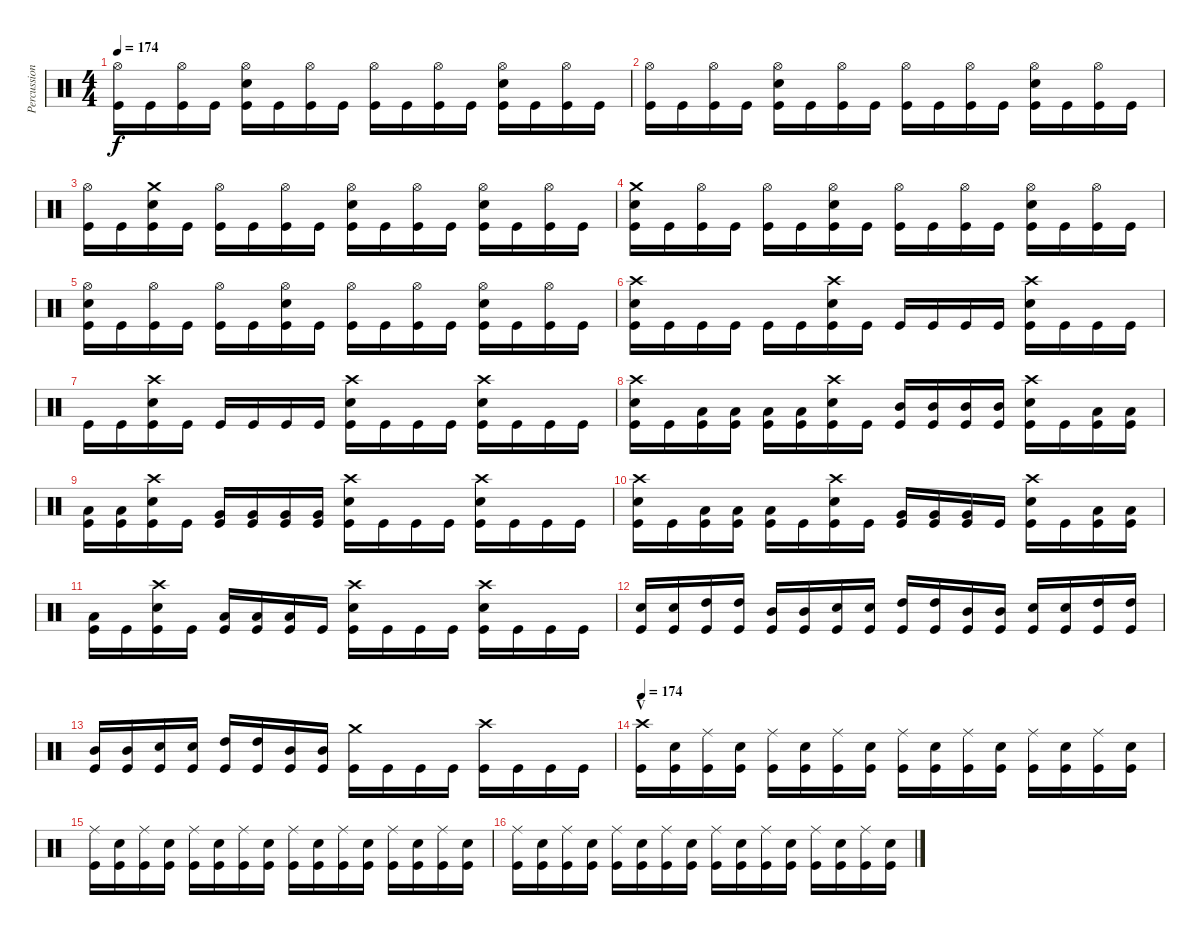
\track ("Percussion" "Percussion") {instrument percussion}
\staff {score}
\articulation defaults
\ts (4 4)
\tempo 174
\clef neutral
\ks c
("Hi-Hat (open)" "Kick (hit)").16{dy f} "Kick (hit)".16 ("Hi-Hat (open)" "Kick (hit)").16 "Kick (hit)".16 ("Hi-Hat (open)" "Electric Snare (hit)" "Kick (hit)").16 "Kick (hit)".16 ("Hi-Hat (open)" "Kick (hit)").16 "Kick (hit)".16 ("Hi-Hat (open)" "Kick (hit)").16 "Kick (hit)".16 ("Hi-Hat (open)" "Kick (hit)").16 "Kick (hit)".16 ("Hi-Hat (open)" "Electric Snare (hit)" "Kick (hit)").16 "Kick (hit)".16 ("Hi-Hat (open)" "Kick (hit)").16 "Kick (hit)".16 |
("Hi-Hat (open)" "Kick (hit)").16 "Kick (hit)".16 ("Hi-Hat (open)" "Kick (hit)").16 "Kick (hit)".16 ("Hi-Hat (open)" "Electric Snare (hit)" "Kick (hit)").16 "Kick (hit)".16 ("Hi-Hat (open)" "Kick (hit)").16 "Kick (hit)".16 ("Hi-Hat (open)" "Kick (hit)").16 "Kick (hit)".16 ("Hi-Hat (open)" "Kick (hit)").16 "Kick (hit)".16 ("Hi-Hat (open)" "Electric Snare (hit)" "Kick (hit)").16 "Kick (hit)".16 ("Hi-Hat (open)" "Kick (hit)").16 "Kick (hit)".16 |
("Hi-Hat (open)" "Kick (hit)").16 "Kick (hit)".16 ("Crash medium (hit)" "Electric Snare (hit)" "Kick (hit)").16 "Kick (hit)".16 ("Hi-Hat (open)" "Kick (hit)").16 "Kick (hit)".16 ("Hi-Hat (open)" "Kick (hit)").16 "Kick (hit)".16 ("Hi-Hat (open)" "Electric Snare (hit)" "Kick (hit)").16 "Kick (hit)".16 ("Hi-Hat (open)" "Kick (hit)").16 "Kick (hit)".16 ("Hi-Hat (open)" "Electric Snare (hit)" "Kick (hit)").16 "Kick (hit)".16 ("Hi-Hat (open)" "Kick (hit)").16 "Kick (hit)".16 |
("Crash medium (hit)" "Electric Snare (hit)" "Kick (hit)").16 "Kick (hit)".16 ("Hi-Hat (open)" "Kick (hit)").16 "Kick (hit)".16 ("Hi-Hat (open)" "Kick (hit)").16 "Kick (hit)".16 ("Hi-Hat (open)" "Electric Snare (hit)" "Kick (hit)").16 "Kick (hit)".16 ("Hi-Hat (open)" "Kick (hit)").16 "Kick (hit)".16 ("Hi-Hat (open)" "Kick (hit)").16 "Kick (hit)".16 ("Hi-Hat (open)" "Electric Snare (hit)" "Kick (hit)").16 "Kick (hit)".16 ("Hi-Hat (open)" "Kick (hit)").16 "Kick (hit)".16 |
("Hi-Hat (open)" "Electric Snare (hit)" "Kick (hit)").16 "Kick (hit)".16 ("Hi-Hat (open)" "Kick (hit)").16 "Kick (hit)".16 ("Hi-Hat (open)" "Kick (hit)").16 "Kick (hit)".16 ("Hi-Hat (open)" "Electric Snare (hit)" "Kick (hit)").16 "Kick (hit)".16 ("Hi-Hat (open)" "Kick (hit)").16 "Kick (hit)".16 ("Hi-Hat (open)" "Kick (hit)").16 "Kick (hit)".16 ("Hi-Hat (open)" "Electric Snare (hit)" "Kick (hit)").16 "Kick (hit)".16 ("Hi-Hat (open)" "Kick (hit)").16 "Kick (hit)".16 |
("Crash high (hit)" "Electric Snare (hit)" "Kick (hit)").16 "Kick (hit)".16 "Kick (hit)".16 "Kick (hit)".16 "Kick (hit)".16 "Kick (hit)".16 ("Crash high (hit)" "Electric Snare (hit)" "Kick (hit)").16 "Kick (hit)".16 "Kick (hit)".16 "Kick (hit)".16 "Kick (hit)".16 "Kick (hit)".16 ("Crash high (hit)" "Electric Snare (hit)" "Kick (hit)").16 "Kick (hit)".16 "Kick (hit)".16 "Kick (hit)".16 |
"Kick (hit)".16 "Kick (hit)".16 ("Crash high (hit)" "Electric Snare (hit)" "Kick (hit)").16 "Kick (hit)".16 "Kick (hit)".16 "Kick (hit)".16 "Kick (hit)".16 "Kick (hit)".16 ("Crash high (hit)" "Electric Snare (hit)" "Kick (hit)").16 "Kick (hit)".16 "Kick (hit)".16 "Kick (hit)".16 ("Crash high (hit)" "Electric Snare (hit)" "Kick (hit)").16 "Kick (hit)".16 "Kick (hit)".16 "Kick (hit)".16 |
("Crash high (hit)" "Electric Snare (hit)" "Kick (hit)").16 "Kick (hit)".16 ("Low Tom (hit)" "Kick (hit)").16 ("Low Tom (hit)" "Kick (hit)").16 ("Low Tom (hit)" "Kick (hit)").16 ("Low Tom (hit)" "Kick (hit)").16 ("Crash high (hit)" "Electric Snare (hit)" "Kick (hit)").16 "Kick (hit)".16 ("Mid Tom (hit)" "Kick (hit)").16 ("Mid Tom (hit)" "Kick (hit)").16 ("Mid Tom (hit)" "Kick (hit)").16 ("Mid Tom (hit)" "Kick (hit)").16 ("Crash high (hit)" "Electric Snare (hit)" "Kick (hit)").16 "Kick (hit)".16 ("Low Tom (hit)" "Kick (hit)").16 ("Low Tom (hit)" "Kick (hit)").16 |
("Low Tom (hit)" "Kick (hit)").16 ("Low Tom (hit)" "Kick (hit)").16 ("Crash high (hit)" "Electric Snare (hit)" "Kick (hit)").16 "Kick (hit)".16 ("Very Low Tom (hit)" "Kick (hit)").16 ("Very Low Tom (hit)" "Kick (hit)").16 ("Very Low Tom (hit)" "Kick (hit)").16 ("Very Low Tom (hit)" "Kick (hit)").16 ("Crash high (hit)" "Electric Snare (hit)" "Kick (hit)").16 "Kick (hit)".16 "Kick (hit)".16 "Kick (hit)".16 ("Crash high (hit)" "Electric Snare (hit)" "Kick (hit)").16 "Kick (hit)".16 "Kick (hit)".16 "Kick (hit)".16 |
("Crash high (hit)" "Electric Snare (hit)" "Kick (hit)").16 "Kick (hit)".16 ("Low Tom (hit)" "Kick (hit)").16 ("Low Tom (hit)" "Kick (hit)").16 ("Low Tom (hit)" "Kick (hit)").16 "Kick (hit)".16 ("Crash high (hit)" "Electric Snare (hit)" "Kick (hit)").16 "Kick (hit)".16 ("Very Low Tom (hit)" "Kick (hit)").16 ("Very Low Tom (hit)" "Kick (hit)").16 ("Very Low Tom (hit)" "Kick (hit)").16 "Kick (hit)".16 ("Crash high (hit)" "Electric Snare (hit)" "Kick (hit)").16 "Kick (hit)".16 ("Low Floor Tom (hit)" "Kick (hit)").16 ("Low Floor Tom (hit)" "Kick (hit)").16 |
("Low Floor Tom (hit)" "Kick (hit)").16 "Kick (hit)".16 ("Crash high (hit)" "Electric Snare (hit)" "Kick (hit)").16 "Kick (hit)".16 ("Low Floor Tom (hit)" "Kick (hit)").16 ("Low Floor Tom (hit)" "Kick (hit)").16 ("Low Floor Tom (hit)" "Kick (hit)").16 "Kick (hit)".16 ("Crash high (hit)" "Electric Snare (hit)" "Kick (hit)").16 "Kick (hit)".16 "Kick (hit)".16 "Kick (hit)".16 ("Crash high (hit)" "Electric Snare (hit)" "Kick (hit)").16 "Kick (hit)".16 "Kick (hit)".16 "Kick (hit)".16 |
("Electric Snare (hit)" "Kick (hit)").16 ("Electric Snare (hit)" "Kick (hit)").16 ("High Tom (hit)" "Kick (hit)").16 ("High Tom (hit)" "Kick (hit)").16 ("Mid Tom (hit)" "Kick (hit)").16 ("Mid Tom (hit)" "Kick (hit)").16 ("Electric Snare (hit)" "Kick (hit)").16 ("Electric Snare (hit)" "Kick (hit)").16 ("High Tom (hit)" "Kick (hit)").16 ("High Tom (hit)" "Kick (hit)").16 ("Mid Tom (hit)" "Kick (hit)").16 ("Mid Tom (hit)" "Kick (hit)").16 ("Electric Snare (hit)" "Kick (hit)").16 ("Electric Snare (hit)" "Kick (hit)").16 ("High Tom (hit)" "Kick (hit)").16 ("High Tom (hit)" "Kick (hit)").16 |
("Mid Tom (hit)" "Kick (hit)").16 ("Mid Tom (hit)" "Kick (hit)").16 ("Electric Snare (hit)" "Kick (hit)").16 ("Electric Snare (hit)" "Kick (hit)").16 ("High Tom (hit)" "Kick (hit)").16 ("High Tom (hit)" "Kick (hit)").16 ("Mid Tom (hit)" "Kick (hit)").16 ("Mid Tom (hit)" "Kick (hit)").16 ("Crash medium (hit)" "Kick (hit)").16 "Kick (hit)".16 "Kick (hit)".16 "Kick (hit)".16 ("Crash high (hit)" "Kick (hit)").16 "Kick (hit)".16 "Kick (hit)".16 "Kick (hit)".16 |
\section ("" "V")
\tempo 174
("Crash high (hit)" "Kick (hit)").16 ("Electric Snare (hit)" "Kick (hit)").16 ("Ride (middle)" "Kick (hit)").16 ("Electric Snare (hit)" "Kick (hit)").16 ("Ride (middle)" "Kick (hit)").16 ("Electric Snare (hit)" "Kick (hit)").16 ("Ride (middle)" "Kick (hit)").16 ("Electric Snare (hit)" "Kick (hit)").16 ("Ride (middle)" "Kick (hit)").16 ("Electric Snare (hit)" "Kick (hit)").16 ("Ride (middle)" "Kick (hit)").16 ("Electric Snare (hit)" "Kick (hit)").16 ("Ride (middle)" "Kick (hit)").16 ("Electric Snare (hit)" "Kick (hit)").16 ("Ride (middle)" "Kick (hit)").16 ("Electric Snare (hit)" "Kick (hit)").16 |
("Ride (middle)" "Kick (hit)").16 ("Electric Snare (hit)" "Kick (hit)").16 ("Ride (middle)" "Kick (hit)").16 ("Electric Snare (hit)" "Kick (hit)").16 ("Ride (middle)" "Kick (hit)").16 ("Electric Snare (hit)" "Kick (hit)").16 ("Ride (middle)" "Kick (hit)").16 ("Electric Snare (hit)" "Kick (hit)").16 ("Ride (middle)" "Kick (hit)").16 ("Electric Snare (hit)" "Kick (hit)").16 ("Ride (middle)" "Kick (hit)").16 ("Electric Snare (hit)" "Kick (hit)").16 ("Ride (middle)" "Kick (hit)").16 ("Electric Snare (hit)" "Kick (hit)").16 ("Ride (middle)" "Kick (hit)").16 ("Electric Snare (hit)" "Kick (hit)").16 |
("Ride (middle)" "Kick (hit)").16 ("Electric Snare (hit)" "Kick (hit)").16 ("Ride (middle)" "Kick (hit)").16 ("Electric Snare (hit)" "Kick (hit)").16 ("Ride (middle)" "Kick (hit)").16 ("Electric Snare (hit)" "Kick (hit)").16 ("Ride (middle)" "Kick (hit)").16 ("Electric Snare (hit)" "Kick (hit)").16 ("Ride (middle)" "Kick (hit)").16 ("Electric Snare (hit)" "Kick (hit)").16 ("Ride (middle)" "Kick (hit)").16 ("Electric Snare (hit)" "Kick (hit)").16 ("Ride (middle)" "Kick (hit)").16 ("Electric Snare (hit)" "Kick (hit)").16 ("Ride (middle)" "Kick (hit)").16 ("Electric Snare (hit)" "Kick (hit)").16
